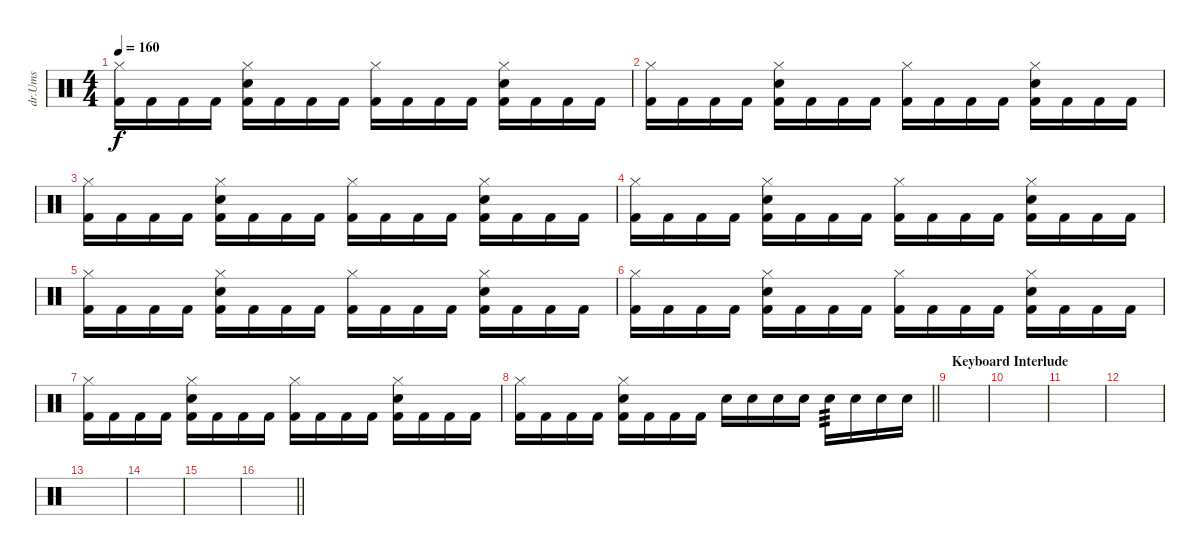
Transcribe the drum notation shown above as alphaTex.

\track ("dr.Ums" "dr.Ums") {instrument percussion}
\staff {score}
\articulation defaults
\ts (4 4)
\tempo 160
\clef neutral
\ks c
("Hi-Hat (closed)" "Kick (hit) 2").16{dy f} "Kick (hit) 2".16 "Kick (hit) 2".16 "Kick (hit) 2".16 ("Snare (hit) 2" "Hi-Hat (closed)" "Kick (hit) 2").16 "Kick (hit) 2".16 "Kick (hit) 2".16 "Kick (hit) 2".16 ("Hi-Hat (closed)" "Kick (hit) 2").16 "Kick (hit) 2".16 "Kick (hit) 2".16 "Kick (hit) 2".16 ("Snare (hit) 2" "Hi-Hat (closed)" "Kick (hit) 2").16 "Kick (hit) 2".16 "Kick (hit) 2".16 "Kick (hit) 2".16 |
("Hi-Hat (closed)" "Kick (hit) 2").16 "Kick (hit) 2".16 "Kick (hit) 2".16 "Kick (hit) 2".16 ("Snare (hit) 2" "Hi-Hat (closed)" "Kick (hit) 2").16 "Kick (hit) 2".16 "Kick (hit) 2".16 "Kick (hit) 2".16 ("Hi-Hat (closed)" "Kick (hit) 2").16 "Kick (hit) 2".16 "Kick (hit) 2".16 "Kick (hit) 2".16 ("Snare (hit) 2" "Hi-Hat (closed)" "Kick (hit) 2").16 "Kick (hit) 2".16 "Kick (hit) 2".16 "Kick (hit) 2".16 |
("Hi-Hat (closed)" "Kick (hit) 2").16 "Kick (hit) 2".16 "Kick (hit) 2".16 "Kick (hit) 2".16 ("Snare (hit) 2" "Hi-Hat (closed)" "Kick (hit) 2").16 "Kick (hit) 2".16 "Kick (hit) 2".16 "Kick (hit) 2".16 ("Hi-Hat (closed)" "Kick (hit) 2").16 "Kick (hit) 2".16 "Kick (hit) 2".16 "Kick (hit) 2".16 ("Snare (hit) 2" "Hi-Hat (closed)" "Kick (hit) 2").16 "Kick (hit) 2".16 "Kick (hit) 2".16 "Kick (hit) 2".16 |
("Hi-Hat (closed)" "Kick (hit) 2").16 "Kick (hit) 2".16 "Kick (hit) 2".16 "Kick (hit) 2".16 ("Snare (hit) 2" "Hi-Hat (closed)" "Kick (hit) 2").16 "Kick (hit) 2".16 "Kick (hit) 2".16 "Kick (hit) 2".16 ("Hi-Hat (closed)" "Kick (hit) 2").16 "Kick (hit) 2".16 "Kick (hit) 2".16 "Kick (hit) 2".16 ("Snare (hit) 2" "Hi-Hat (closed)" "Kick (hit) 2").16 "Kick (hit) 2".16 "Kick (hit) 2".16 "Kick (hit) 2".16 |
("Hi-Hat (closed)" "Kick (hit) 2").16 "Kick (hit) 2".16 "Kick (hit) 2".16 "Kick (hit) 2".16 ("Snare (hit) 2" "Hi-Hat (closed)" "Kick (hit) 2").16 "Kick (hit) 2".16 "Kick (hit) 2".16 "Kick (hit) 2".16 ("Hi-Hat (closed)" "Kick (hit) 2").16 "Kick (hit) 2".16 "Kick (hit) 2".16 "Kick (hit) 2".16 ("Snare (hit) 2" "Hi-Hat (closed)" "Kick (hit) 2").16 "Kick (hit) 2".16 "Kick (hit) 2".16 "Kick (hit) 2".16 |
("Hi-Hat (closed)" "Kick (hit) 2").16 "Kick (hit) 2".16 "Kick (hit) 2".16 "Kick (hit) 2".16 ("Snare (hit) 2" "Hi-Hat (closed)" "Kick (hit) 2").16 "Kick (hit) 2".16 "Kick (hit) 2".16 "Kick (hit) 2".16 ("Hi-Hat (closed)" "Kick (hit) 2").16 "Kick (hit) 2".16 "Kick (hit) 2".16 "Kick (hit) 2".16 ("Snare (hit) 2" "Hi-Hat (closed)" "Kick (hit) 2").16 "Kick (hit) 2".16 "Kick (hit) 2".16 "Kick (hit) 2".16 |
("Hi-Hat (closed)" "Kick (hit) 2").16 "Kick (hit) 2".16 "Kick (hit) 2".16 "Kick (hit) 2".16 ("Snare (hit) 2" "Hi-Hat (closed)" "Kick (hit) 2").16 "Kick (hit) 2".16 "Kick (hit) 2".16 "Kick (hit) 2".16 ("Hi-Hat (closed)" "Kick (hit) 2").16 "Kick (hit) 2".16 "Kick (hit) 2".16 "Kick (hit) 2".16 ("Snare (hit) 2" "Hi-Hat (closed)" "Kick (hit) 2").16 "Kick (hit) 2".16 "Kick (hit) 2".16 "Kick (hit) 2".16 |
\barLineRight lightlight
("Hi-Hat (closed)" "Kick (hit) 2").16 "Kick (hit) 2".16 "Kick (hit) 2".16 "Kick (hit) 2".16 ("Snare (hit) 2" "Hi-Hat (closed)" "Kick (hit) 2").16 "Kick (hit) 2".16 "Kick (hit) 2".16 "Kick (hit) 2".16 "Snare (hit) 2".16 "Snare (hit) 2".16 "Snare (hit) 2".16 "Snare (hit) 2".16 "Snare (hit) 2".16{tp 3} "Snare (hit) 2".16 "Snare (hit) 2".16 "Snare (hit) 2".16 |
\section ("" "Keyboard Interlude")
|
|
|
|
|
|
|
\barLineRight lightlight
